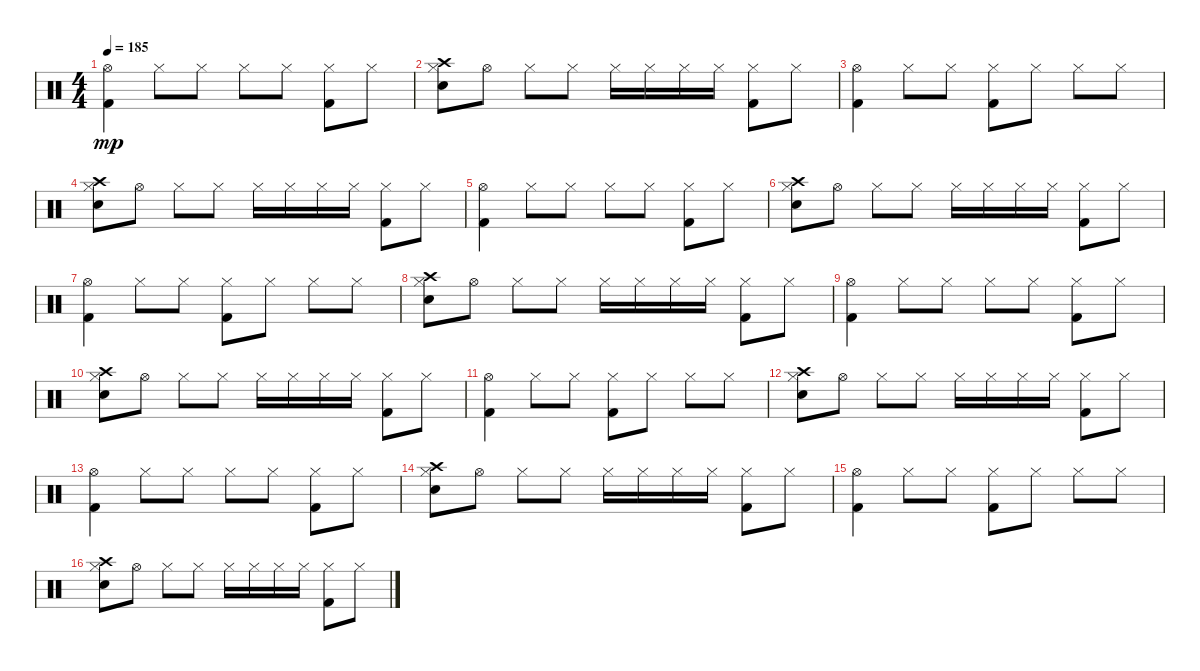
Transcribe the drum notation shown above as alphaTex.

\track "" {instrument percussion}
\staff {score}
\articulation defaults
\ts (4 4)
\tempo 185
\clef neutral
\ks c
("Hi-Hat (open)" "Kick (hit) 2").4{dy mp} "Hi-Hat (closed)".8 "Hi-Hat (closed)".8 "Hi-Hat (closed)".8 "Hi-Hat (closed)".8 ("Hi-Hat (closed)" "Kick (hit) 2").8 "Hi-Hat (closed)".8 |
("Hi-Hat (closed)" "Electric Snare (hit)" "Crash high (hit)").8 "Hi-Hat (open)".8 "Hi-Hat (closed)".8 "Hi-Hat (closed)".8 "Hi-Hat (closed)".16 "Hi-Hat (closed)".16 "Hi-Hat (closed)".16 "Hi-Hat (closed)".16 ("Hi-Hat (closed)" "Kick (hit) 2").8 "Hi-Hat (closed)".8 |
("Hi-Hat (open)" "Kick (hit) 2").4 "Hi-Hat (closed)".8 "Hi-Hat (closed)".8 ("Hi-Hat (closed)" "Kick (hit) 2").8 "Hi-Hat (closed)".8 "Hi-Hat (closed)".8 "Hi-Hat (closed)".8 |
("Hi-Hat (closed)" "Electric Snare (hit)" "Crash high (hit)").8 "Hi-Hat (open)".8 "Hi-Hat (closed)".8 "Hi-Hat (closed)".8 "Hi-Hat (closed)".16 "Hi-Hat (closed)".16 "Hi-Hat (closed)".16 "Hi-Hat (closed)".16 ("Hi-Hat (closed)" "Kick (hit) 2").8 "Hi-Hat (closed)".8 |
("Hi-Hat (open)" "Kick (hit) 2").4 "Hi-Hat (closed)".8 "Hi-Hat (closed)".8 "Hi-Hat (closed)".8 "Hi-Hat (closed)".8 ("Hi-Hat (closed)" "Kick (hit) 2").8 "Hi-Hat (closed)".8 |
("Hi-Hat (closed)" "Electric Snare (hit)" "Crash high (hit)").8 "Hi-Hat (open)".8 "Hi-Hat (closed)".8 "Hi-Hat (closed)".8 "Hi-Hat (closed)".16 "Hi-Hat (closed)".16 "Hi-Hat (closed)".16 "Hi-Hat (closed)".16 ("Hi-Hat (closed)" "Kick (hit) 2").8 "Hi-Hat (closed)".8 |
("Hi-Hat (open)" "Kick (hit) 2").4 "Hi-Hat (closed)".8 "Hi-Hat (closed)".8 ("Hi-Hat (closed)" "Kick (hit) 2").8 "Hi-Hat (closed)".8 "Hi-Hat (closed)".8 "Hi-Hat (closed)".8 |
("Hi-Hat (closed)" "Electric Snare (hit)" "Crash high (hit)").8 "Hi-Hat (open)".8 "Hi-Hat (closed)".8 "Hi-Hat (closed)".8 "Hi-Hat (closed)".16 "Hi-Hat (closed)".16 "Hi-Hat (closed)".16 "Hi-Hat (closed)".16 ("Hi-Hat (closed)" "Kick (hit) 2").8 "Hi-Hat (closed)".8 |
("Hi-Hat (open)" "Kick (hit) 2").4 "Hi-Hat (closed)".8 "Hi-Hat (closed)".8 "Hi-Hat (closed)".8 "Hi-Hat (closed)".8 ("Hi-Hat (closed)" "Kick (hit) 2").8 "Hi-Hat (closed)".8 |
("Hi-Hat (closed)" "Electric Snare (hit)" "Crash high (hit)").8 "Hi-Hat (open)".8 "Hi-Hat (closed)".8 "Hi-Hat (closed)".8 "Hi-Hat (closed)".16 "Hi-Hat (closed)".16 "Hi-Hat (closed)".16 "Hi-Hat (closed)".16 ("Hi-Hat (closed)" "Kick (hit) 2").8 "Hi-Hat (closed)".8 |
("Hi-Hat (open)" "Kick (hit) 2").4 "Hi-Hat (closed)".8 "Hi-Hat (closed)".8 ("Hi-Hat (closed)" "Kick (hit) 2").8 "Hi-Hat (closed)".8 "Hi-Hat (closed)".8 "Hi-Hat (closed)".8 |
("Hi-Hat (closed)" "Electric Snare (hit)" "Crash high (hit)").8 "Hi-Hat (open)".8 "Hi-Hat (closed)".8 "Hi-Hat (closed)".8 "Hi-Hat (closed)".16 "Hi-Hat (closed)".16 "Hi-Hat (closed)".16 "Hi-Hat (closed)".16 ("Hi-Hat (closed)" "Kick (hit) 2").8 "Hi-Hat (closed)".8 |
("Hi-Hat (open)" "Kick (hit) 2").4 "Hi-Hat (closed)".8 "Hi-Hat (closed)".8 "Hi-Hat (closed)".8 "Hi-Hat (closed)".8 ("Hi-Hat (closed)" "Kick (hit) 2").8 "Hi-Hat (closed)".8 |
("Hi-Hat (closed)" "Electric Snare (hit)" "Crash high (hit)").8 "Hi-Hat (open)".8 "Hi-Hat (closed)".8 "Hi-Hat (closed)".8 "Hi-Hat (closed)".16 "Hi-Hat (closed)".16 "Hi-Hat (closed)".16 "Hi-Hat (closed)".16 ("Hi-Hat (closed)" "Kick (hit) 2").8 "Hi-Hat (closed)".8 |
("Hi-Hat (open)" "Kick (hit) 2").4 "Hi-Hat (closed)".8 "Hi-Hat (closed)".8 ("Hi-Hat (closed)" "Kick (hit) 2").8 "Hi-Hat (closed)".8 "Hi-Hat (closed)".8 "Hi-Hat (closed)".8 |
("Hi-Hat (closed)" "Electric Snare (hit)" "Crash high (hit)").8 "Hi-Hat (open)".8 "Hi-Hat (closed)".8 "Hi-Hat (closed)".8 "Hi-Hat (closed)".16 "Hi-Hat (closed)".16 "Hi-Hat (closed)".16 "Hi-Hat (closed)".16 ("Hi-Hat (closed)" "Kick (hit) 2").8 "Hi-Hat (closed)".8
